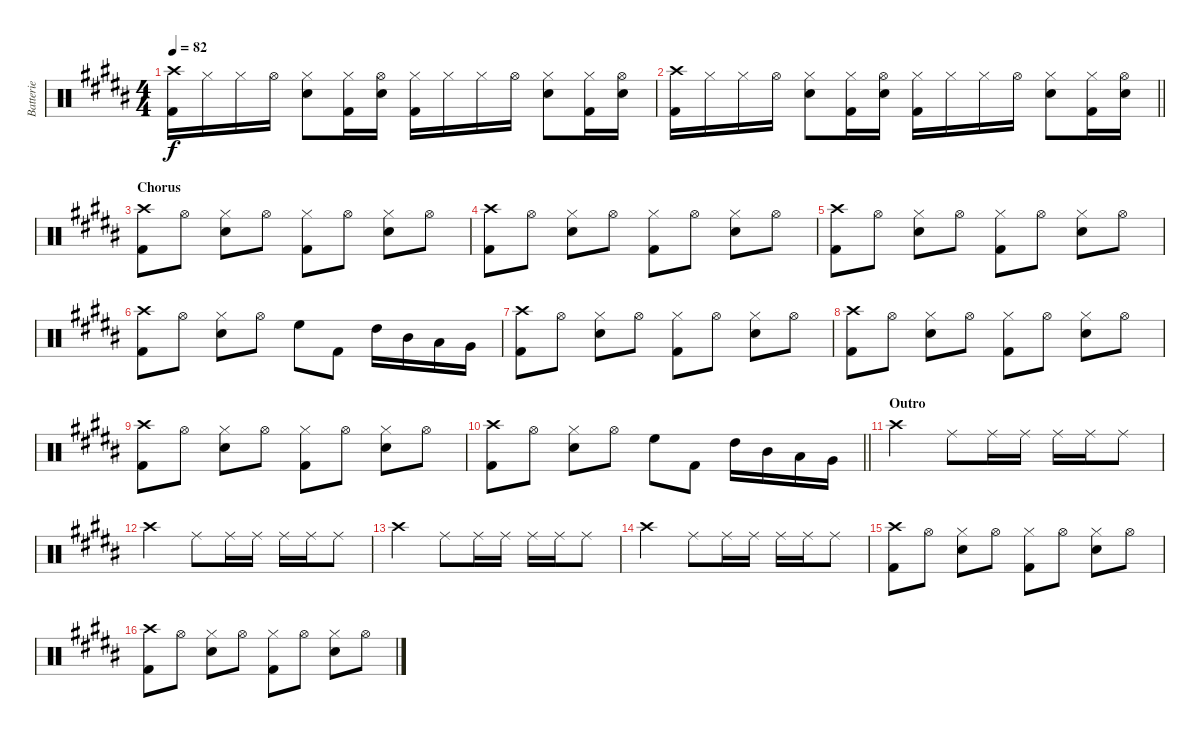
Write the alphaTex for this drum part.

\track ("Batterie" "Batterie") {instrument percussion}
\staff {score}
\articulation defaults
\ts (4 4)
\tempo 82
\clef neutral
\ks b
("Crash high (hit)" "Kick (hit) 2").16{dy f} "Hi-Hat (closed)".16 "Hi-Hat (closed)".16 "Hi-Hat (open)".16 ("Hi-Hat (closed)" "Snare (hit) 2").8 ("Hi-Hat (closed)" "Kick (hit) 2").16 ("Hi-Hat (open)" "Snare (hit) 2").16 ("Hi-Hat (closed)" "Kick (hit) 2").16 "Hi-Hat (closed)".16 "Hi-Hat (closed)".16 "Hi-Hat (open)".16 ("Hi-Hat (closed)" "Snare (hit) 2").8 ("Hi-Hat (closed)" "Kick (hit) 2").16 ("Hi-Hat (open)" "Snare (hit) 2").16 |
\barLineRight lightlight
("Crash high (hit)" "Kick (hit) 2").16 "Hi-Hat (closed)".16 "Hi-Hat (closed)".16 "Hi-Hat (open)".16 ("Hi-Hat (closed)" "Snare (hit) 2").8 ("Hi-Hat (closed)" "Kick (hit) 2").16 ("Hi-Hat (open)" "Snare (hit) 2").16 ("Hi-Hat (closed)" "Kick (hit) 2").16 "Hi-Hat (closed)".16 "Hi-Hat (closed)".16 "Hi-Hat (open)".16 ("Hi-Hat (closed)" "Snare (hit) 2").8 ("Hi-Hat (closed)" "Kick (hit) 2").16 ("Hi-Hat (open)" "Snare (hit) 2").16 |
\section ("" "Chorus")
("Crash high (hit)" "Kick (hit) 2").8 "Hi-Hat (open)".8 ("Hi-Hat (closed)" "Snare (hit) 2").8 "Hi-Hat (open)".8 ("Hi-Hat (closed)" "Kick (hit) 2").8 "Hi-Hat (open)".8 ("Hi-Hat (closed)" "Snare (hit) 2").8 "Hi-Hat (open)".8 |
("Crash high (hit)" "Kick (hit) 2").8 "Hi-Hat (open)".8 ("Hi-Hat (closed)" "Snare (hit) 2").8 "Hi-Hat (open)".8 ("Hi-Hat (closed)" "Kick (hit) 2").8 "Hi-Hat (open)".8 ("Hi-Hat (closed)" "Snare (hit) 2").8 "Hi-Hat (open)".8 |
("Crash high (hit)" "Kick (hit) 2").8 "Hi-Hat (open)".8 ("Hi-Hat (closed)" "Snare (hit) 2").8 "Hi-Hat (open)".8 ("Hi-Hat (closed)" "Kick (hit) 2").8 "Hi-Hat (open)".8 ("Hi-Hat (closed)" "Snare (hit) 2").8 "Hi-Hat (open)".8 |
("Crash high (hit)" "Kick (hit) 2").8 "Hi-Hat (open)".8 ("Hi-Hat (closed)" "Snare (hit) 2").8 "Hi-Hat (open)".8 "High Floor Tom (hit)".8 "Kick (hit) 2".8 "High Tom (hit)".16 "Mid Tom (hit)".16 "Low Tom (hit)".16 "Very Low Tom (hit)".16 |
("Crash high (hit)" "Kick (hit) 2").8 "Hi-Hat (open)".8 ("Hi-Hat (closed)" "Snare (hit) 2").8 "Hi-Hat (open)".8 ("Hi-Hat (closed)" "Kick (hit) 2").8 "Hi-Hat (open)".8 ("Hi-Hat (closed)" "Snare (hit) 2").8 "Hi-Hat (open)".8 |
("Crash high (hit)" "Kick (hit) 2").8 "Hi-Hat (open)".8 ("Hi-Hat (closed)" "Snare (hit) 2").8 "Hi-Hat (open)".8 ("Hi-Hat (closed)" "Kick (hit) 2").8 "Hi-Hat (open)".8 ("Hi-Hat (closed)" "Snare (hit) 2").8 "Hi-Hat (open)".8 |
("Crash high (hit)" "Kick (hit) 2").8 "Hi-Hat (open)".8 ("Hi-Hat (closed)" "Snare (hit) 2").8 "Hi-Hat (open)".8 ("Hi-Hat (closed)" "Kick (hit) 2").8 "Hi-Hat (open)".8 ("Hi-Hat (closed)" "Snare (hit) 2").8 "Hi-Hat (open)".8 |
\barLineRight lightlight
("Crash high (hit)" "Kick (hit) 2").8 "Hi-Hat (open)".8 ("Hi-Hat (closed)" "Snare (hit) 2").8 "Hi-Hat (open)".8 "High Floor Tom (hit)".8 "Kick (hit) 2".8 "High Tom (hit)".16 "Mid Tom (hit)".16 "Low Tom (hit)".16 "Very Low Tom (hit)".16 |
\section ("" "Outro")
"Crash high (hit)".2 "Ride (middle)".8 "Ride (middle)".16 "Ride (middle)".16 "Ride (middle)".16 "Ride (middle)".16 "Ride (middle)".8 |
"Crash high (hit)".2 "Ride (middle)".8 "Ride (middle)".16 "Ride (middle)".16 "Ride (middle)".16 "Ride (middle)".16 "Ride (middle)".8 |
"Crash high (hit)".2 "Ride (middle)".8 "Ride (middle)".16 "Ride (middle)".16 "Ride (middle)".16 "Ride (middle)".16 "Ride (middle)".8 |
"Crash high (hit)".2 "Ride (middle)".8 "Ride (middle)".16 "Ride (middle)".16 "Ride (middle)".16 "Ride (middle)".16 "Ride (middle)".8 |
("Crash high (hit)" "Kick (hit) 2").8 "Hi-Hat (open)".8 ("Hi-Hat (closed)" "Snare (hit) 2").8 "Hi-Hat (open)".8 ("Hi-Hat (closed)" "Kick (hit) 2").8 "Hi-Hat (open)".8 ("Hi-Hat (closed)" "Snare (hit) 2").8 "Hi-Hat (open)".8 |
("Crash high (hit)" "Kick (hit) 2").8 "Hi-Hat (open)".8 ("Hi-Hat (closed)" "Snare (hit) 2").8 "Hi-Hat (open)".8 ("Hi-Hat (closed)" "Kick (hit) 2").8 "Hi-Hat (open)".8 ("Hi-Hat (closed)" "Snare (hit) 2").8 "Hi-Hat (open)".8
